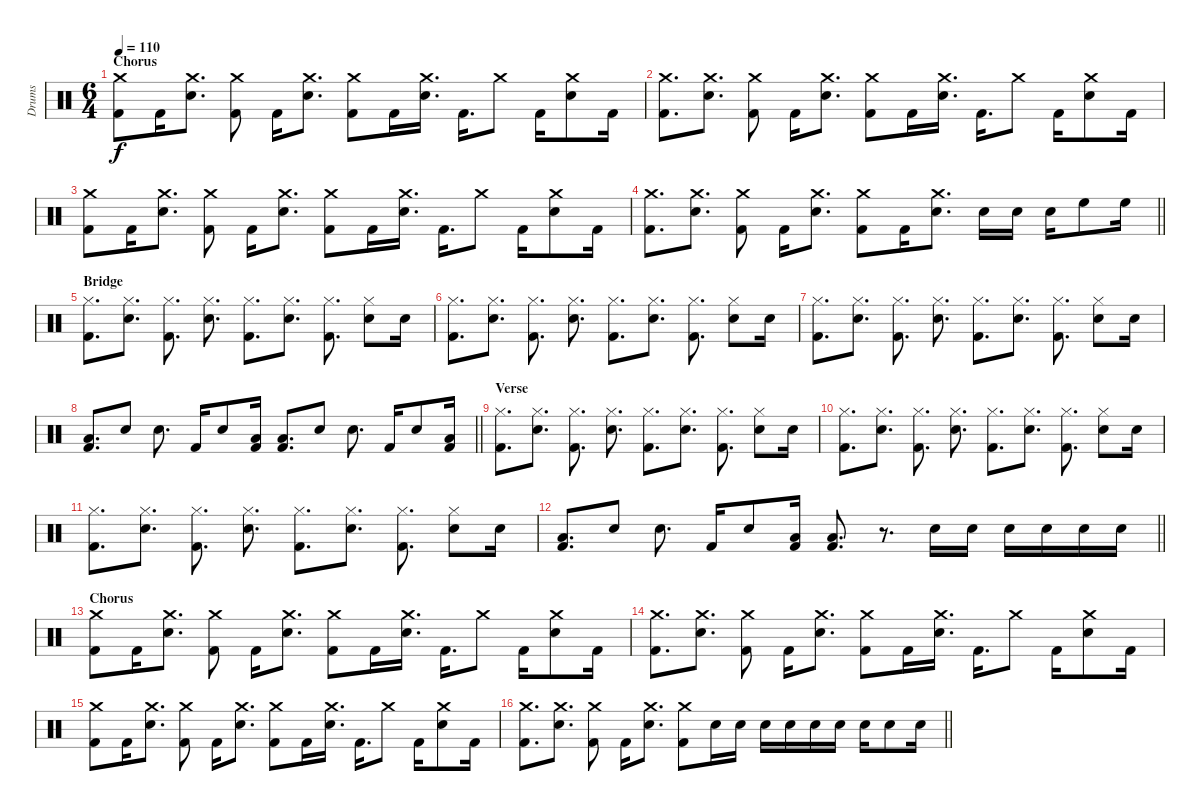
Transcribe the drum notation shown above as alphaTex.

\track ("Drums" "Drums") {instrument percussion}
\staff {score}
\articulation defaults
\ts (6 4)
\section ("" "Chorus")
\tempo 110
\clef neutral
\ks c
("Crash medium (hit)" "Kick (hit) 2").8{dy f} "Kick (hit) 2".16 ("Crash medium (hit)" "Snare (hit) 2").8{d} ("Crash medium (hit)" "Kick (hit) 2").8 "Kick (hit) 2".16 ("Crash medium (hit)" "Snare (hit) 2").8{d} ("Crash medium (hit)" "Kick (hit) 2").8 "Kick (hit) 2".16 ("Crash medium (hit)" "Snare (hit) 2").16{d} "Kick (hit) 2".16{d} "Crash medium (hit)".8 "Kick (hit) 2".16 ("Crash medium (hit)" "Snare (hit) 2").8 "Kick (hit) 2".16 |
("Crash medium (hit)" "Kick (hit) 2").8{d} ("Crash medium (hit)" "Snare (hit) 2").8{d} ("Crash medium (hit)" "Kick (hit) 2").8 "Kick (hit) 2".16 ("Crash medium (hit)" "Snare (hit) 2").8{d} ("Crash medium (hit)" "Kick (hit) 2").8 "Kick (hit) 2".16 ("Crash medium (hit)" "Snare (hit) 2").16{d} "Kick (hit) 2".16{d} "Crash medium (hit)".8 "Kick (hit) 2".16 ("Crash medium (hit)" "Snare (hit) 2").8 "Kick (hit) 2".16 |
("Crash medium (hit)" "Kick (hit) 2").8 "Kick (hit) 2".16 ("Crash medium (hit)" "Snare (hit) 2").8{d} ("Crash medium (hit)" "Kick (hit) 2").8 "Kick (hit) 2".16 ("Crash medium (hit)" "Snare (hit) 2").8{d} ("Crash medium (hit)" "Kick (hit) 2").8 "Kick (hit) 2".16 ("Crash medium (hit)" "Snare (hit) 2").16{d} "Kick (hit) 2".16{d} "Crash medium (hit)".8 "Kick (hit) 2".16 ("Crash medium (hit)" "Snare (hit) 2").8 "Kick (hit) 2".16 |
\barLineRight lightlight
("Crash medium (hit)" "Kick (hit) 2").8{d} ("Crash medium (hit)" "Snare (hit) 2").8{d} ("Crash medium (hit)" "Kick (hit) 2").8 "Kick (hit) 2".16 ("Crash medium (hit)" "Snare (hit) 2").8{d} ("Crash medium (hit)" "Kick (hit) 2").8 "Kick (hit) 2".16 ("Crash medium (hit)" "Snare (hit) 2").8{d} "Snare (hit) 2".16 "Snare (hit) 2".16 "Snare (hit) 2".16 "High Floor Tom (hit)".8 "High Floor Tom (hit)".16 |
\section ("" "Bridge")
("Hi-Hat (closed)" "Kick (hit) 2").8{d} ("Hi-Hat (closed)" "Snare (hit) 2").8{d} ("Hi-Hat (closed)" "Kick (hit) 2").8{d} ("Hi-Hat (closed)" "Snare (hit) 2").8{d} ("Hi-Hat (closed)" "Kick (hit) 2").8{d} ("Hi-Hat (closed)" "Snare (hit) 2").8{d} ("Hi-Hat (closed)" "Kick (hit) 2").8{d} ("Hi-Hat (closed)" "Snare (hit) 2").8 "Snare (hit) 2".16 |
("Hi-Hat (closed)" "Kick (hit) 2").8{d} ("Hi-Hat (closed)" "Snare (hit) 2").8{d} ("Hi-Hat (closed)" "Kick (hit) 2").8{d} ("Hi-Hat (closed)" "Snare (hit) 2").8{d} ("Hi-Hat (closed)" "Kick (hit) 2").8{d} ("Hi-Hat (closed)" "Snare (hit) 2").8{d} ("Hi-Hat (closed)" "Kick (hit) 2").8{d} ("Hi-Hat (closed)" "Snare (hit) 2").8 "Snare (hit) 2".16 |
("Hi-Hat (closed)" "Kick (hit) 2").8{d} ("Hi-Hat (closed)" "Snare (hit) 2").8{d} ("Hi-Hat (closed)" "Kick (hit) 2").8{d} ("Hi-Hat (closed)" "Snare (hit) 2").8{d} ("Hi-Hat (closed)" "Kick (hit) 2").8{d} ("Hi-Hat (closed)" "Snare (hit) 2").8{d} ("Hi-Hat (closed)" "Kick (hit) 2").8{d} ("Hi-Hat (closed)" "Snare (hit) 2").8 "Snare (hit) 2".16 |
\barLineRight lightlight
("Low Floor Tom (hit)" "Kick (hit) 2").8{d} "Snare (hit) 2".8 "Snare (hit) 2".8{d} "Kick (hit) 2".16 "Snare (hit) 2".8 ("Low Floor Tom (hit)" "Kick (hit) 2").16 ("Low Floor Tom (hit)" "Kick (hit) 2").8{d} "Snare (hit) 2".8 "Snare (hit) 2".8{d} "Kick (hit) 2".16 "Snare (hit) 2".8 ("Low Floor Tom (hit)" "Kick (hit) 2").16 |
\section ("" "Verse")
("Hi-Hat (closed)" "Kick (hit) 2").8{d} ("Hi-Hat (closed)" "Snare (hit) 2").8{d} ("Hi-Hat (closed)" "Kick (hit) 2").8{d} ("Hi-Hat (closed)" "Snare (hit) 2").8{d} ("Hi-Hat (closed)" "Kick (hit) 2").8{d} ("Hi-Hat (closed)" "Snare (hit) 2").8{d} ("Hi-Hat (closed)" "Kick (hit) 2").8{d} ("Hi-Hat (closed)" "Snare (hit) 2").8 "Snare (hit) 2".16 |
("Hi-Hat (closed)" "Kick (hit) 2").8{d} ("Hi-Hat (closed)" "Snare (hit) 2").8{d} ("Hi-Hat (closed)" "Kick (hit) 2").8{d} ("Hi-Hat (closed)" "Snare (hit) 2").8{d} ("Hi-Hat (closed)" "Kick (hit) 2").8{d} ("Hi-Hat (closed)" "Snare (hit) 2").8{d} ("Hi-Hat (closed)" "Kick (hit) 2").8{d} ("Hi-Hat (closed)" "Snare (hit) 2").8 "Snare (hit) 2".16 |
("Hi-Hat (closed)" "Kick (hit) 2").8{d} ("Hi-Hat (closed)" "Snare (hit) 2").8{d} ("Hi-Hat (closed)" "Kick (hit) 2").8{d} ("Hi-Hat (closed)" "Snare (hit) 2").8{d} ("Hi-Hat (closed)" "Kick (hit) 2").8{d} ("Hi-Hat (closed)" "Snare (hit) 2").8{d} ("Hi-Hat (closed)" "Kick (hit) 2").8{d} ("Hi-Hat (closed)" "Snare (hit) 2").8 "Snare (hit) 2".16 |
\barLineRight lightlight
("Low Floor Tom (hit)" "Kick (hit) 2").8{d} "Snare (hit) 2".8 "Snare (hit) 2".8{d} "Kick (hit) 2".16 "Snare (hit) 2".8 ("Low Floor Tom (hit)" "Kick (hit) 2").16 ("Low Floor Tom (hit)" "Kick (hit) 2").8{d} r.8{d} "Snare (hit) 2".16 "Snare (hit) 2".16 "Snare (hit) 2".16 "Snare (hit) 2".16 "Snare (hit) 2".16 "Snare (hit) 2".16 |
\section ("" "Chorus")
("Crash medium (hit)" "Kick (hit) 2").8 "Kick (hit) 2".16 ("Crash medium (hit)" "Snare (hit) 2").8{d} ("Crash medium (hit)" "Kick (hit) 2").8 "Kick (hit) 2".16 ("Crash medium (hit)" "Snare (hit) 2").8{d} ("Crash medium (hit)" "Kick (hit) 2").8 "Kick (hit) 2".16 ("Crash medium (hit)" "Snare (hit) 2").16{d} "Kick (hit) 2".16{d} "Crash medium (hit)".8 "Kick (hit) 2".16 ("Crash medium (hit)" "Snare (hit) 2").8 "Kick (hit) 2".16 |
("Crash medium (hit)" "Kick (hit) 2").8{d} ("Crash medium (hit)" "Snare (hit) 2").8{d} ("Crash medium (hit)" "Kick (hit) 2").8 "Kick (hit) 2".16 ("Crash medium (hit)" "Snare (hit) 2").8{d} ("Crash medium (hit)" "Kick (hit) 2").8 "Kick (hit) 2".16 ("Crash medium (hit)" "Snare (hit) 2").16{d} "Kick (hit) 2".16{d} "Crash medium (hit)".8 "Kick (hit) 2".16 ("Crash medium (hit)" "Snare (hit) 2").8 "Kick (hit) 2".16 |
("Crash medium (hit)" "Kick (hit) 2").8 "Kick (hit) 2".16 ("Crash medium (hit)" "Snare (hit) 2").8{d} ("Crash medium (hit)" "Kick (hit) 2").8 "Kick (hit) 2".16 ("Crash medium (hit)" "Snare (hit) 2").8{d} ("Crash medium (hit)" "Kick (hit) 2").8 "Kick (hit) 2".16 ("Crash medium (hit)" "Snare (hit) 2").16{d} "Kick (hit) 2".16{d} "Crash medium (hit)".8 "Kick (hit) 2".16 ("Crash medium (hit)" "Snare (hit) 2").8 "Kick (hit) 2".16 |
\barLineRight lightlight
("Crash medium (hit)" "Kick (hit) 2").8{d} ("Crash medium (hit)" "Snare (hit) 2").8{d} ("Crash medium (hit)" "Kick (hit) 2").8 "Kick (hit) 2".16 ("Crash medium (hit)" "Snare (hit) 2").8{d} ("Crash medium (hit)" "Kick (hit) 2").8 "Snare (hit) 2".16 "Snare (hit) 2".16 "Snare (hit) 2".16 "Snare (hit) 2".16 "Snare (hit) 2".16 "Snare (hit) 2".16 "Snare (hit) 2".16 "Snare (hit) 2".8 "Snare (hit) 2".16
